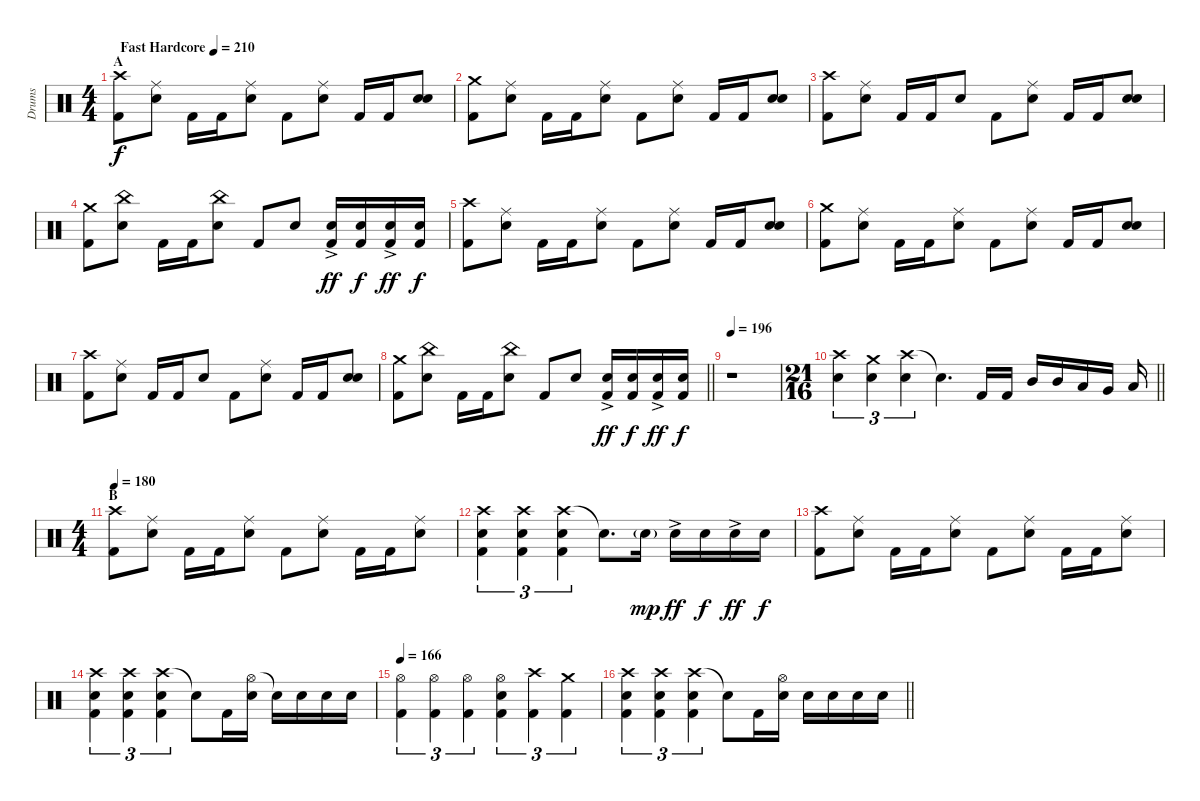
\track ("Drums" "Drums") {instrument percussion}
\staff {score}
\articulation defaults
\ts (4 4)
\section ("" "A")
\tempo (210 "Fast Hardcore")
\clef neutral
\ks c
("Crash high (hit)" "Kick (hit) 2").8{dy f} ("Ride (middle)" "Electric Snare (hit)").8 "Kick (hit) 2".16 "Kick (hit) 2".16 ("Ride (middle)" "Electric Snare (hit)").8 "Kick (hit) 2".8 ("Ride (middle)" "Electric Snare (hit)").8 "Kick (hit) 2".16 "Kick (hit) 2".16 ("Electric Snare (hit)" "Electric Snare (hit)").8 |
("Crash medium (hit)" "Kick (hit) 2").8 ("Ride (middle)" "Electric Snare (hit)").8 "Kick (hit) 2".16 "Kick (hit) 2".16 ("Ride (middle)" "Electric Snare (hit)").8 "Kick (hit) 2".8 ("Ride (middle)" "Electric Snare (hit)").8 "Kick (hit) 2".16 "Kick (hit) 2".16 ("Electric Snare (hit)" "Electric Snare (hit)").8 |
("Crash high (hit)" "Kick (hit) 2").8 ("Ride (middle)" "Electric Snare (hit)").8 "Kick (hit) 2".16 "Kick (hit) 2".16 "Electric Snare (hit)".8 "Kick (hit) 2".8 ("Ride (middle)" "Electric Snare (hit)").8 "Kick (hit) 2".16 "Kick (hit) 2".16 ("Electric Snare (hit)" "Electric Snare (hit)").8 |
("Crash medium (hit)" "Kick (hit) 2").8 ("China (hit)" "Electric Snare (hit)").8 "Kick (hit) 2".16 "Kick (hit) 2".16 ("China (hit)" "Electric Snare (hit)").8 "Kick (hit) 2".8 "Electric Snare (hit)".8 ("Electric Snare (hit)"{ac} "Kick (hit) 2").16{dy ff} ("Electric Snare (hit)" "Kick (hit) 2").16{dy f} ("Electric Snare (hit)"{ac} "Kick (hit) 2").16{dy ff} ("Electric Snare (hit)" "Kick (hit) 2").16{dy f} |
("Crash high (hit)" "Kick (hit) 2").8 ("Ride (middle)" "Electric Snare (hit)").8 "Kick (hit) 2".16 "Kick (hit) 2".16 ("Ride (middle)" "Electric Snare (hit)").8 "Kick (hit) 2".8 ("Ride (middle)" "Electric Snare (hit)").8 "Kick (hit) 2".16 "Kick (hit) 2".16 ("Electric Snare (hit)" "Electric Snare (hit)").8 |
("Crash medium (hit)" "Kick (hit) 2").8 ("Ride (middle)" "Electric Snare (hit)").8 "Kick (hit) 2".16 "Kick (hit) 2".16 ("Ride (middle)" "Electric Snare (hit)").8 "Kick (hit) 2".8 ("Ride (middle)" "Electric Snare (hit)").8 "Kick (hit) 2".16 "Kick (hit) 2".16 ("Electric Snare (hit)" "Electric Snare (hit)").8 |
("Crash high (hit)" "Kick (hit) 2").8 ("Ride (middle)" "Electric Snare (hit)").8 "Kick (hit) 2".16 "Kick (hit) 2".16 "Electric Snare (hit)".8 "Kick (hit) 2".8 ("Ride (middle)" "Electric Snare (hit)").8 "Kick (hit) 2".16 "Kick (hit) 2".16 ("Electric Snare (hit)" "Electric Snare (hit)").8 |
\barLineRight lightlight
("Crash medium (hit)" "Kick (hit) 2").8 ("China (hit)" "Electric Snare (hit)").8 "Kick (hit) 2".16 "Kick (hit) 2".16 ("China (hit)" "Electric Snare (hit)").8 "Kick (hit) 2".8 "Electric Snare (hit)".8 ("Electric Snare (hit)"{ac} "Kick (hit) 2").16{dy ff} ("Electric Snare (hit)" "Kick (hit) 2").16{dy f} ("Electric Snare (hit)"{ac} "Kick (hit) 2").16{dy ff} ("Electric Snare (hit)" "Kick (hit) 2").16{dy f} |
\section ("" "")
\tempo 196
r.1 |
\ts (21 16)
\barLineRight lightlight
("Crash high (hit)" "Electric Snare (hit)").4{tu (3 2)} ("Crash medium (hit)" "Electric Snare (hit)").4{tu (3 2)} ("Crash high (hit)" "Electric Snare (hit)").4{tu (3 2)} "Snare (hit)"{t}.4{d} "Kick (hit) 2".16 "Kick (hit) 2".16 "Mid Tom (hit)".16 "Mid Tom (hit)".16 "Low Tom (hit)".16 "Very Low Tom (hit)".16 "Low Floor Tom (hit)".16 |
\ts (4 4)
\section ("" "B")
\tempo 180
("Crash high (hit)" "Kick (hit) 2").8 ("Ride (middle)" "Electric Snare (hit)").8 "Kick (hit) 2".16 "Kick (hit) 2".16 ("Ride (middle)" "Electric Snare (hit)").8 "Kick (hit) 2".8 ("Ride (middle)" "Electric Snare (hit)").8 "Kick (hit) 2".16 "Kick (hit) 2".16 ("Ride (middle)" "Electric Snare (hit)").8 |
("Crash high (hit)" "Electric Snare (hit)" "Kick (hit) 2").4{tu (3 2)} ("Crash high (hit)" "Electric Snare (hit)" "Kick (hit) 2").4{tu (3 2)} ("Crash high (hit)" "Electric Snare (hit)" "Kick (hit) 2").4{tu (3 2)} "Snare (hit)"{t}.8{d} "Electric Snare (hit)"{g}.16{dy mp} "Electric Snare (hit)"{ac}.16{dy ff} "Electric Snare (hit)".16{dy f} "Electric Snare (hit)"{ac}.16{dy ff} "Electric Snare (hit)".16{dy f} |
("Crash high (hit)" "Kick (hit) 2").8 ("Ride (middle)" "Electric Snare (hit)").8 "Kick (hit) 2".16 "Kick (hit) 2".16 ("Ride (middle)" "Electric Snare (hit)").8 "Kick (hit) 2".8 ("Ride (middle)" "Electric Snare (hit)").8 "Kick (hit) 2".16 "Kick (hit) 2".16 ("Ride (middle)" "Electric Snare (hit)").8 |
("Crash high (hit)" "Electric Snare (hit)" "Kick (hit) 2").4{tu (3 2)} ("Crash high (hit)" "Electric Snare (hit)" "Kick (hit) 2").4{tu (3 2)} ("Crash high (hit)" "Electric Snare (hit)" "Kick (hit) 2").4{tu (3 2)} "Snare (hit)"{t}.8 "Kick (hit) 2".16 ("Hi-Hat (open)" "Electric Snare (hit)").16 "Snare (hit)"{t}.16 "Electric Snare (hit)".16 "Electric Snare (hit)".16 "Electric Snare (hit)".16 |
\tempo 166
("Hi-Hat (open)" "Kick (hit) 2").4{tu (3 2)} ("Hi-Hat (open)" "Kick (hit) 2").4{tu (3 2)} ("Hi-Hat (open)" "Kick (hit) 2").4{tu (3 2)} ("Hi-Hat (open)" "Electric Snare (hit)" "Kick (hit) 2").4{tu (3 2)} ("Crash high (hit)" "Kick (hit) 2").4{tu (3 2)} ("Crash medium (hit)" "Kick (hit) 2").4{tu (3 2)} |
\barLineRight lightlight
("Crash high (hit)" "Electric Snare (hit)" "Kick (hit) 2").4{tu (3 2)} ("Crash high (hit)" "Electric Snare (hit)" "Kick (hit) 2").4{tu (3 2)} ("Crash high (hit)" "Electric Snare (hit)" "Kick (hit) 2").4{tu (3 2)} "Snare (hit)"{t}.8 "Kick (hit) 2".16 ("Hi-Hat (open)" "Electric Snare (hit)").16 "Electric Snare (hit)".16 "Electric Snare (hit)".16 "Electric Snare (hit)".16 "Electric Snare (hit)".16
